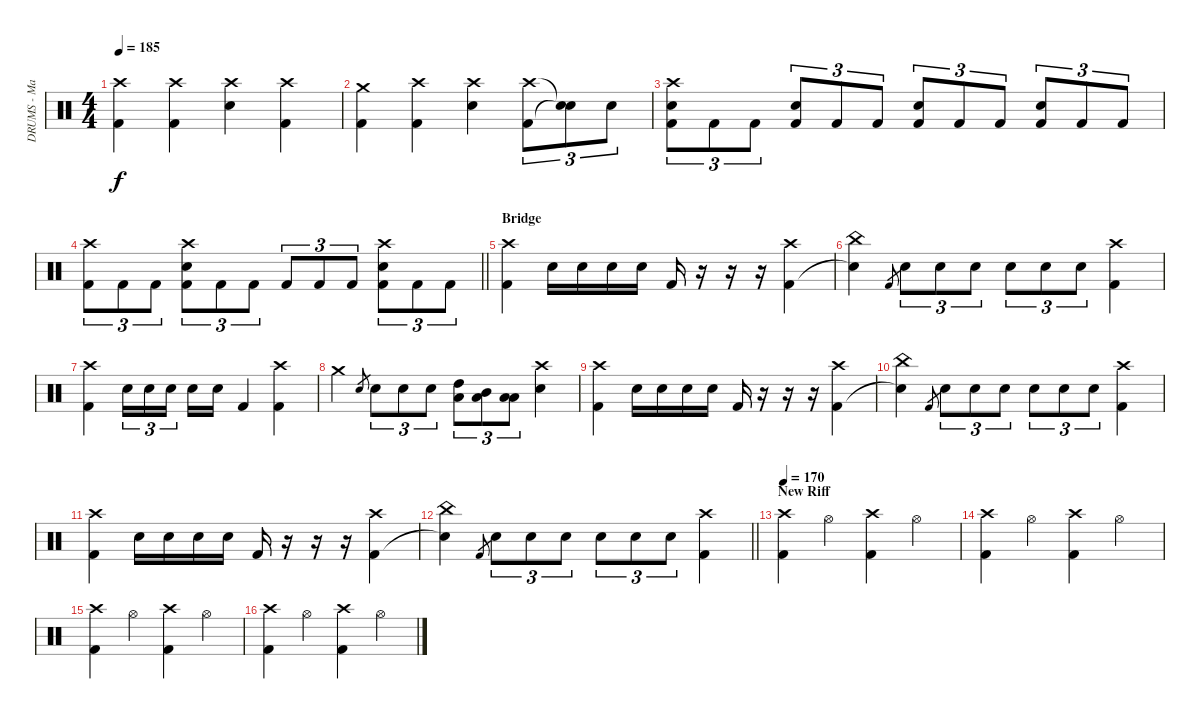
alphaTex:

\track ("DRUMS - Mario Duplantier" "DRUMS - Ma") {instrument percussion}
\staff {score}
\articulation defaults
\ts (4 4)
\tempo 185
\clef neutral
\ks c
("Crash high (hit)" "Kick (hit) 2").4{dy f} ("Crash high (hit)" "Kick (hit) 2").4 ("Crash high (hit)" "Electric Snare (hit)").4 ("Crash high (hit)" "Kick (hit) 2").4 |
("Crash medium (hit)" "Kick (hit) 2").4 ("Crash high (hit)" "Kick (hit) 2").4 ("Crash high (hit)" "Electric Snare (hit)").4 ("Crash high (hit)" "Kick (hit) 2").8{tu (3 2)} ("Snare (hit)"{t} "Snare (hit)"{t}).8{tu (3 2)} "Electric Snare (hit)".8{tu (3 2)} |
("Crash high (hit)" "Electric Snare (hit)" "Kick (hit) 2").8{tu (3 2)} "Kick (hit) 2".8{tu (3 2)} "Kick (hit) 2".8{tu (3 2)} ("Electric Snare (hit)" "Kick (hit) 2").8{tu (3 2)} "Kick (hit) 2".8{tu (3 2)} "Kick (hit) 2".8{tu (3 2)} ("Electric Snare (hit)" "Kick (hit) 2").8{tu (3 2)} "Kick (hit) 2".8{tu (3 2)} "Kick (hit) 2".8{tu (3 2)} ("Electric Snare (hit)" "Kick (hit) 2").8{tu (3 2)} "Kick (hit) 2".8{tu (3 2)} "Kick (hit) 2".8{tu (3 2)} |
\barLineRight lightlight
("Crash high (hit)" "Kick (hit) 2").8{tu (3 2)} "Kick (hit) 2".8{tu (3 2)} "Kick (hit) 2".8{tu (3 2)} ("Crash high (hit)" "Electric Snare (hit)" "Kick (hit) 2").8{tu (3 2)} "Kick (hit) 2".8{tu (3 2)} "Kick (hit) 2".8{tu (3 2)} "Kick (hit) 2".8{tu (3 2)} "Kick (hit) 2".8{tu (3 2)} "Kick (hit) 2".8{tu (3 2)} ("Crash high (hit)" "Electric Snare (hit)" "Kick (hit) 2").8{tu (3 2)} "Kick (hit) 2".8{tu (3 2)} "Kick (hit) 2".8{tu (3 2)} |
\section ("" "Bridge")
("Crash high (hit)" "Kick (hit) 2").4 "Electric Snare (hit)".16 "Electric Snare (hit)".16 "Electric Snare (hit)".16 "Electric Snare (hit)".16 "Kick (hit) 2".16 r.16 r.16 r.16 ("Crash high (hit)" "Kick (hit) 2").4 |
("China (hit)" "Snare (hit)"{t}).4 "Kick (hit) 2".8{gr} "Electric Snare (hit)".8{tu (3 2)} "Electric Snare (hit)".8{tu (3 2)} "Electric Snare (hit)".8{tu (3 2)} "Electric Snare (hit)".8{tu (3 2)} "Electric Snare (hit)".8{tu (3 2)} "Electric Snare (hit)".8{tu (3 2)} ("Crash high (hit)" "Kick (hit) 2").4 |
("Crash high (hit)" "Kick (hit) 2").4 "Electric Snare (hit)".16{tu (3 2)} "Electric Snare (hit)".16{tu (3 2)} "Electric Snare (hit)".16{tu (3 2) beam splitsecondary} "Electric Snare (hit)".16 "Electric Snare (hit)".16 "Kick (hit) 2".4 ("Crash high (hit)" "Kick (hit) 2").4 |
"Crash medium (hit)".4 "Electric Snare (hit)".8{gr} "Electric Snare (hit)".8{tu (3 2)} "Electric Snare (hit)".8{tu (3 2)} "Electric Snare (hit)".8{tu (3 2)} ("High Tom (hit)" "Low Floor Tom (hit)").8{tu (3 2)} ("Mid Tom (hit)" "Low Floor Tom (hit)").8{tu (3 2)} ("Low Tom (hit)" "Low Floor Tom (hit)").8{tu (3 2)} ("Crash high (hit)" "Electric Snare (hit)").4 |
("Crash high (hit)" "Kick (hit) 2").4 "Electric Snare (hit)".16 "Electric Snare (hit)".16 "Electric Snare (hit)".16 "Electric Snare (hit)".16 "Kick (hit) 2".16 r.16 r.16 r.16 ("Crash high (hit)" "Kick (hit) 2").4 |
("China (hit)" "Snare (hit)"{t}).4 "Kick (hit) 2".8{gr} "Electric Snare (hit)".8{tu (3 2)} "Electric Snare (hit)".8{tu (3 2)} "Electric Snare (hit)".8{tu (3 2)} "Electric Snare (hit)".8{tu (3 2)} "Electric Snare (hit)".8{tu (3 2)} "Electric Snare (hit)".8{tu (3 2)} ("Crash high (hit)" "Kick (hit) 2").4 |
("Crash high (hit)" "Kick (hit) 2").4 "Electric Snare (hit)".16 "Electric Snare (hit)".16 "Electric Snare (hit)".16 "Electric Snare (hit)".16 "Kick (hit) 2".16 r.16 r.16 r.16 ("Crash high (hit)" "Kick (hit) 2").4 |
\barLineRight lightlight
("China (hit)" "Snare (hit)"{t}).4 "Kick (hit) 2".8{gr} "Electric Snare (hit)".8{tu (3 2)} "Electric Snare (hit)".8{tu (3 2)} "Electric Snare (hit)".8{tu (3 2)} "Electric Snare (hit)".8{tu (3 2)} "Electric Snare (hit)".8{tu (3 2)} "Electric Snare (hit)".8{tu (3 2)} ("Crash high (hit)" "Kick (hit) 2").4 |
\section ("" "New Riff")
\tempo 170
("Crash high (hit)" "Kick (hit) 2").4 "Hi-Hat (open)".4 ("Crash high (hit)" "Kick (hit) 2").4 "Hi-Hat (open)".4 |
("Crash high (hit)" "Kick (hit) 2").4 "Hi-Hat (open)".4 ("Crash high (hit)" "Kick (hit) 2").4 "Hi-Hat (open)".4 |
("Crash high (hit)" "Kick (hit) 2").4 "Hi-Hat (open)".4 ("Crash high (hit)" "Kick (hit) 2").4 "Hi-Hat (open)".4 |
("Crash high (hit)" "Kick (hit) 2").4 "Hi-Hat (open)".4 ("Crash high (hit)" "Kick (hit) 2").4 "Hi-Hat (open)".4
